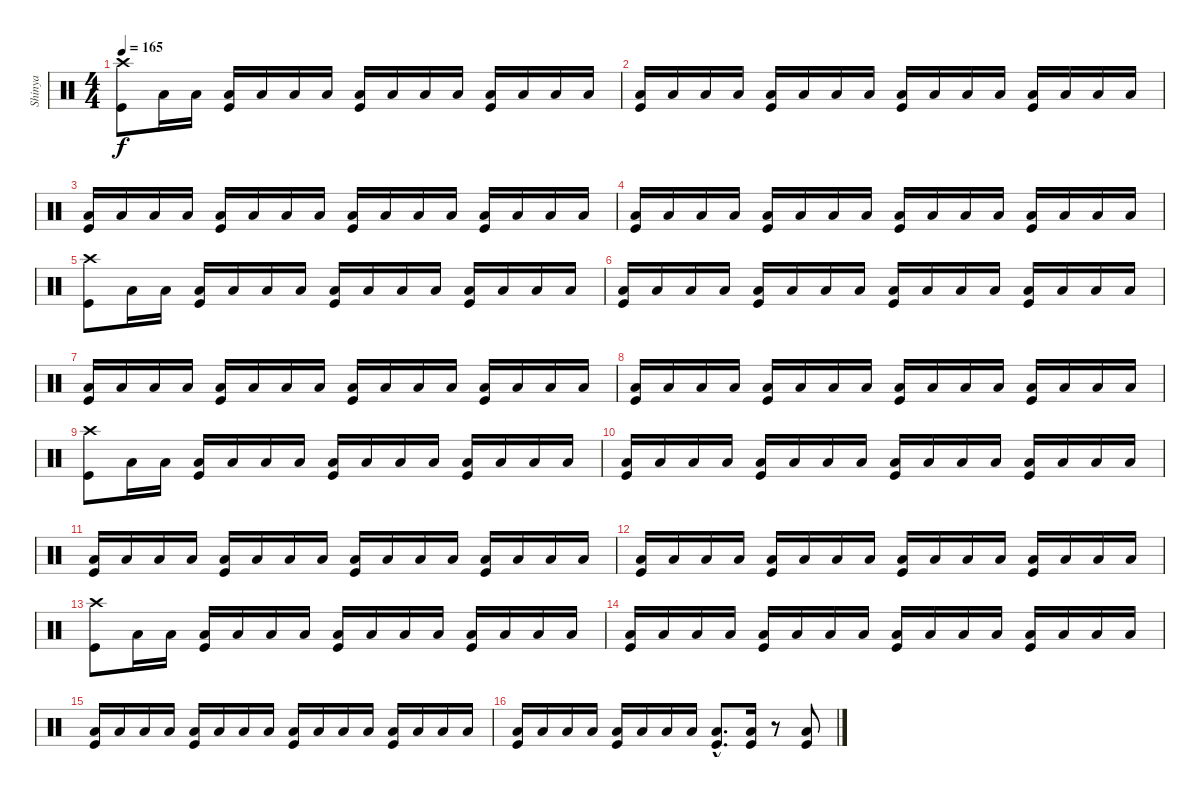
\track ("Shinya" "Shinya") {instrument percussion}
\staff {score}
\articulation defaults
\ts (4 4)
\tempo 165
\clef neutral
\ks c
("Kick (hit)" "Crash high (hit)").8{dy f} "Low Floor Tom (hit)".16 "Low Floor Tom (hit)".16 ("Low Floor Tom (hit)" "Kick (hit)").16 "Low Floor Tom (hit)".16 "Low Floor Tom (hit)".16 "Low Floor Tom (hit)".16 ("Low Floor Tom (hit)" "Kick (hit)").16 "Low Floor Tom (hit)".16 "Low Floor Tom (hit)".16 "Low Floor Tom (hit)".16 ("Kick (hit)" "Low Floor Tom (hit)").16 "Low Floor Tom (hit)".16 "Low Floor Tom (hit)".16 "Low Floor Tom (hit)".16 |
("Kick (hit)" "Low Floor Tom (hit)").16 "Low Floor Tom (hit)".16 "Low Floor Tom (hit)".16 "Low Floor Tom (hit)".16 ("Kick (hit)" "Low Floor Tom (hit)").16 "Low Floor Tom (hit)".16 "Low Floor Tom (hit)".16 "Low Floor Tom (hit)".16 ("Low Floor Tom (hit)" "Kick (hit)").16 "Low Floor Tom (hit)".16 "Low Floor Tom (hit)".16 "Low Floor Tom (hit)".16 ("Kick (hit)" "Low Floor Tom (hit)").16 "Low Floor Tom (hit)".16 "Low Floor Tom (hit)".16 "Low Floor Tom (hit)".16 |
("Kick (hit)" "Low Floor Tom (hit)").16 "Low Floor Tom (hit)".16 "Low Floor Tom (hit)".16 "Low Floor Tom (hit)".16 ("Kick (hit)" "Low Floor Tom (hit)").16 "Low Floor Tom (hit)".16 "Low Floor Tom (hit)".16 "Low Floor Tom (hit)".16 ("Low Floor Tom (hit)" "Kick (hit)").16 "Low Floor Tom (hit)".16 "Low Floor Tom (hit)".16 "Low Floor Tom (hit)".16 ("Kick (hit)" "Low Floor Tom (hit)").16 "Low Floor Tom (hit)".16 "Low Floor Tom (hit)".16 "Low Floor Tom (hit)".16 |
("Kick (hit)" "Low Floor Tom (hit)").16 "Low Floor Tom (hit)".16 "Low Floor Tom (hit)".16 "Low Floor Tom (hit)".16 ("Kick (hit)" "Low Floor Tom (hit)").16 "Low Floor Tom (hit)".16 "Low Floor Tom (hit)".16 "Low Floor Tom (hit)".16 ("Low Floor Tom (hit)" "Kick (hit)").16 "Low Floor Tom (hit)".16 "Low Floor Tom (hit)".16 "Low Floor Tom (hit)".16 ("Kick (hit)" "Low Floor Tom (hit)").16 "Low Floor Tom (hit)".16 "Low Floor Tom (hit)".16 "Low Floor Tom (hit)".16 |
("Kick (hit)" "Crash high (hit)").8 "Low Floor Tom (hit)".16 "Low Floor Tom (hit)".16 ("Low Floor Tom (hit)" "Kick (hit)").16 "Low Floor Tom (hit)".16 "Low Floor Tom (hit)".16 "Low Floor Tom (hit)".16 ("Low Floor Tom (hit)" "Kick (hit)").16 "Low Floor Tom (hit)".16 "Low Floor Tom (hit)".16 "Low Floor Tom (hit)".16 ("Kick (hit)" "Low Floor Tom (hit)").16 "Low Floor Tom (hit)".16 "Low Floor Tom (hit)".16 "Low Floor Tom (hit)".16 |
("Kick (hit)" "Low Floor Tom (hit)").16 "Low Floor Tom (hit)".16 "Low Floor Tom (hit)".16 "Low Floor Tom (hit)".16 ("Kick (hit)" "Low Floor Tom (hit)").16 "Low Floor Tom (hit)".16 "Low Floor Tom (hit)".16 "Low Floor Tom (hit)".16 ("Low Floor Tom (hit)" "Kick (hit)").16 "Low Floor Tom (hit)".16 "Low Floor Tom (hit)".16 "Low Floor Tom (hit)".16 ("Kick (hit)" "Low Floor Tom (hit)").16 "Low Floor Tom (hit)".16 "Low Floor Tom (hit)".16 "Low Floor Tom (hit)".16 |
("Kick (hit)" "Low Floor Tom (hit)").16 "Low Floor Tom (hit)".16 "Low Floor Tom (hit)".16 "Low Floor Tom (hit)".16 ("Kick (hit)" "Low Floor Tom (hit)").16 "Low Floor Tom (hit)".16 "Low Floor Tom (hit)".16 "Low Floor Tom (hit)".16 ("Low Floor Tom (hit)" "Kick (hit)").16 "Low Floor Tom (hit)".16 "Low Floor Tom (hit)".16 "Low Floor Tom (hit)".16 ("Kick (hit)" "Low Floor Tom (hit)").16 "Low Floor Tom (hit)".16 "Low Floor Tom (hit)".16 "Low Floor Tom (hit)".16 |
("Kick (hit)" "Low Floor Tom (hit)").16 "Low Floor Tom (hit)".16 "Low Floor Tom (hit)".16 "Low Floor Tom (hit)".16 ("Kick (hit)" "Low Floor Tom (hit)").16 "Low Floor Tom (hit)".16 "Low Floor Tom (hit)".16 "Low Floor Tom (hit)".16 ("Low Floor Tom (hit)" "Kick (hit)").16 "Low Floor Tom (hit)".16 "Low Floor Tom (hit)".16 "Low Floor Tom (hit)".16 ("Kick (hit)" "Low Floor Tom (hit)").16 "Low Floor Tom (hit)".16 "Low Floor Tom (hit)".16 "Low Floor Tom (hit)".16 |
("Kick (hit)" "Crash high (hit)").8 "Low Floor Tom (hit)".16 "Low Floor Tom (hit)".16 ("Low Floor Tom (hit)" "Kick (hit)").16 "Low Floor Tom (hit)".16 "Low Floor Tom (hit)".16 "Low Floor Tom (hit)".16 ("Low Floor Tom (hit)" "Kick (hit)").16 "Low Floor Tom (hit)".16 "Low Floor Tom (hit)".16 "Low Floor Tom (hit)".16 ("Kick (hit)" "Low Floor Tom (hit)").16 "Low Floor Tom (hit)".16 "Low Floor Tom (hit)".16 "Low Floor Tom (hit)".16 |
("Kick (hit)" "Low Floor Tom (hit)").16 "Low Floor Tom (hit)".16 "Low Floor Tom (hit)".16 "Low Floor Tom (hit)".16 ("Kick (hit)" "Low Floor Tom (hit)").16 "Low Floor Tom (hit)".16 "Low Floor Tom (hit)".16 "Low Floor Tom (hit)".16 ("Low Floor Tom (hit)" "Kick (hit)").16 "Low Floor Tom (hit)".16 "Low Floor Tom (hit)".16 "Low Floor Tom (hit)".16 ("Kick (hit)" "Low Floor Tom (hit)").16 "Low Floor Tom (hit)".16 "Low Floor Tom (hit)".16 "Low Floor Tom (hit)".16 |
("Kick (hit)" "Low Floor Tom (hit)").16 "Low Floor Tom (hit)".16 "Low Floor Tom (hit)".16 "Low Floor Tom (hit)".16 ("Kick (hit)" "Low Floor Tom (hit)").16 "Low Floor Tom (hit)".16 "Low Floor Tom (hit)".16 "Low Floor Tom (hit)".16 ("Low Floor Tom (hit)" "Kick (hit)").16 "Low Floor Tom (hit)".16 "Low Floor Tom (hit)".16 "Low Floor Tom (hit)".16 ("Kick (hit)" "Low Floor Tom (hit)").16 "Low Floor Tom (hit)".16 "Low Floor Tom (hit)".16 "Low Floor Tom (hit)".16 |
("Kick (hit)" "Low Floor Tom (hit)").16 "Low Floor Tom (hit)".16 "Low Floor Tom (hit)".16 "Low Floor Tom (hit)".16 ("Kick (hit)" "Low Floor Tom (hit)").16 "Low Floor Tom (hit)".16 "Low Floor Tom (hit)".16 "Low Floor Tom (hit)".16 ("Low Floor Tom (hit)" "Kick (hit)").16 "Low Floor Tom (hit)".16 "Low Floor Tom (hit)".16 "Low Floor Tom (hit)".16 ("Kick (hit)" "Low Floor Tom (hit)").16 "Low Floor Tom (hit)".16 "Low Floor Tom (hit)".16 "Low Floor Tom (hit)".16 |
("Kick (hit)" "Crash high (hit)").8 "Low Floor Tom (hit)".16 "Low Floor Tom (hit)".16 ("Low Floor Tom (hit)" "Kick (hit)").16 "Low Floor Tom (hit)".16 "Low Floor Tom (hit)".16 "Low Floor Tom (hit)".16 ("Low Floor Tom (hit)" "Kick (hit)").16 "Low Floor Tom (hit)".16 "Low Floor Tom (hit)".16 "Low Floor Tom (hit)".16 ("Kick (hit)" "Low Floor Tom (hit)").16 "Low Floor Tom (hit)".16 "Low Floor Tom (hit)".16 "Low Floor Tom (hit)".16 |
("Kick (hit)" "Low Floor Tom (hit)").16 "Low Floor Tom (hit)".16 "Low Floor Tom (hit)".16 "Low Floor Tom (hit)".16 ("Kick (hit)" "Low Floor Tom (hit)").16 "Low Floor Tom (hit)".16 "Low Floor Tom (hit)".16 "Low Floor Tom (hit)".16 ("Low Floor Tom (hit)" "Kick (hit)").16 "Low Floor Tom (hit)".16 "Low Floor Tom (hit)".16 "Low Floor Tom (hit)".16 ("Kick (hit)" "Low Floor Tom (hit)").16 "Low Floor Tom (hit)".16 "Low Floor Tom (hit)".16 "Low Floor Tom (hit)".16 |
("Kick (hit)" "Low Floor Tom (hit)").16 "Low Floor Tom (hit)".16 "Low Floor Tom (hit)".16 "Low Floor Tom (hit)".16 ("Kick (hit)" "Low Floor Tom (hit)").16 "Low Floor Tom (hit)".16 "Low Floor Tom (hit)".16 "Low Floor Tom (hit)".16 ("Low Floor Tom (hit)" "Kick (hit)").16 "Low Floor Tom (hit)".16 "Low Floor Tom (hit)".16 "Low Floor Tom (hit)".16 ("Kick (hit)" "Low Floor Tom (hit)").16 "Low Floor Tom (hit)".16 "Low Floor Tom (hit)".16 "Low Floor Tom (hit)".16 |
("Kick (hit)" "Low Floor Tom (hit)").16 "Low Floor Tom (hit)".16 "Low Floor Tom (hit)".16 "Low Floor Tom (hit)".16 ("Low Floor Tom (hit)" "Kick (hit)").16 "Low Floor Tom (hit)".16 "Low Floor Tom (hit)".16 "Low Floor Tom (hit)".16 ("Kick (hit)"{hac} "Low Floor Tom (hit)"{hac}).8{d} ("Kick (hit)" "Low Floor Tom (hit)").16 r.8 ("Low Floor Tom (hit)" "Kick (hit)").8
